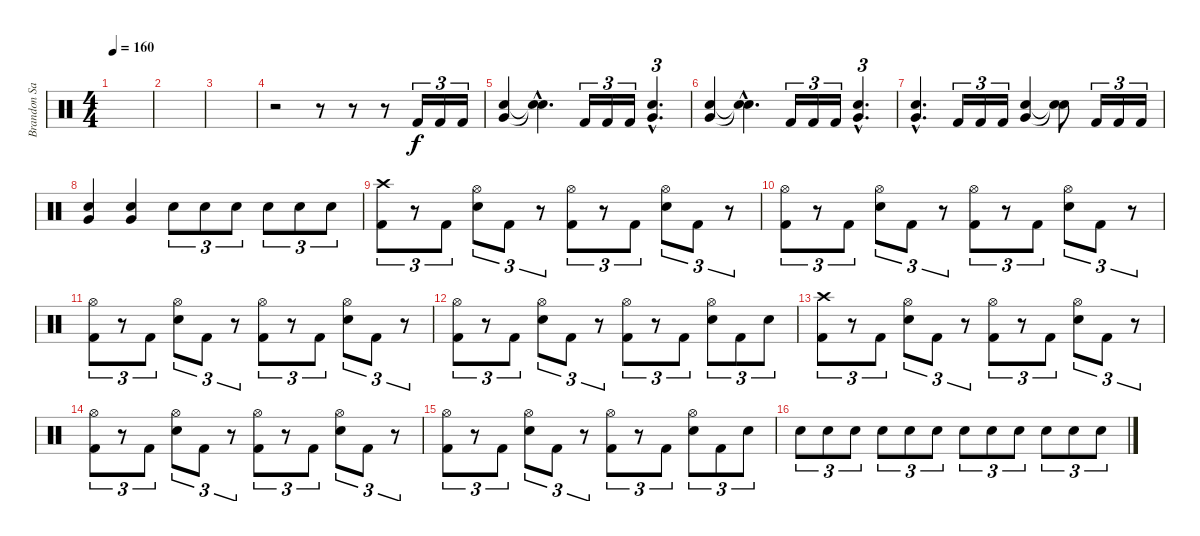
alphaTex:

\track ("Brandon Saller" "Brandon Sa") {instrument percussion}
\staff {score}
\articulation defaults
\ts (4 4)
\tempo 160
\clef neutral
\ks c
|
|
|
r.2 r.8 r.8 r.8 "Kick (hit) 2".16{tu (3 2)} "Kick (hit) 2".16{tu (3 2)} "Kick (hit) 2".16{tu (3 2)} |
("Very Low Tom (hit)" "Electric Snare (hit)").4 ("Snare (hit)"{hac t} "Snare (hit)"{hac t}).4{d} "Kick (hit) 2".16{tu (3 2)} "Kick (hit) 2".16{tu (3 2)} "Kick (hit) 2".16{tu (3 2)} ("Very Low Tom (hit)"{hac} "Electric Snare (hit)"{hac}).4{d tu (3 2)} |
("Very Low Tom (hit)" "Electric Snare (hit)").4 ("Snare (hit)"{hac t} "Snare (hit)"{hac t}).4{d} "Kick (hit) 2".16{tu (3 2)} "Kick (hit) 2".16{tu (3 2)} "Kick (hit) 2".16{tu (3 2)} ("Very Low Tom (hit)"{hac} "Electric Snare (hit)"{hac}).4{d tu (3 2)} |
("Very Low Tom (hit)"{hac} "Electric Snare (hit)"{hac}).4{d} "Kick (hit) 2".16{tu (3 2)} "Kick (hit) 2".16{tu (3 2)} "Kick (hit) 2".16{tu (3 2)} ("Very Low Tom (hit)" "Electric Snare (hit)").4 ("Snare (hit)"{t} "Snare (hit)"{t}).8 "Kick (hit) 2".16{tu (3 2)} "Kick (hit) 2".16{tu (3 2)} "Kick (hit) 2".16{tu (3 2)} |
("Very Low Tom (hit)" "Electric Snare (hit)").4 ("Very Low Tom (hit)" "Electric Snare (hit)").4 "Electric Snare (hit)".8{tu (3 2)} "Electric Snare (hit)".8{tu (3 2)} "Electric Snare (hit)".8{tu (3 2)} "Electric Snare (hit)".8{tu (3 2)} "Electric Snare (hit)".8{tu (3 2)} "Electric Snare (hit)".8{tu (3 2)} |
("Crash high (hit)" "Kick (hit) 2").8{tu (3 2)} r.8{tu (3 2)} "Kick (hit) 2".8{tu (3 2)} ("Hi-Hat (open)" "Electric Snare (hit)").8{tu (3 2)} "Kick (hit) 2".8{tu (3 2)} r.8{tu (3 2)} ("Hi-Hat (open)" "Kick (hit) 2").8{tu (3 2)} r.8{tu (3 2)} "Kick (hit) 2".8{tu (3 2)} ("Hi-Hat (open)" "Electric Snare (hit)").8{tu (3 2)} "Kick (hit) 2".8{tu (3 2)} r.8{tu (3 2)} |
("Hi-Hat (open)" "Kick (hit) 2").8{tu (3 2)} r.8{tu (3 2)} "Kick (hit) 2".8{tu (3 2)} ("Hi-Hat (open)" "Electric Snare (hit)").8{tu (3 2)} "Kick (hit) 2".8{tu (3 2)} r.8{tu (3 2)} ("Hi-Hat (open)" "Kick (hit) 2").8{tu (3 2)} r.8{tu (3 2)} "Kick (hit) 2".8{tu (3 2)} ("Hi-Hat (open)" "Electric Snare (hit)").8{tu (3 2)} "Kick (hit) 2".8{tu (3 2)} r.8{tu (3 2)} |
("Hi-Hat (open)" "Kick (hit) 2").8{tu (3 2)} r.8{tu (3 2)} "Kick (hit) 2".8{tu (3 2)} ("Hi-Hat (open)" "Electric Snare (hit)").8{tu (3 2)} "Kick (hit) 2".8{tu (3 2)} r.8{tu (3 2)} ("Hi-Hat (open)" "Kick (hit) 2").8{tu (3 2)} r.8{tu (3 2)} "Kick (hit) 2".8{tu (3 2)} ("Hi-Hat (open)" "Electric Snare (hit)").8{tu (3 2)} "Kick (hit) 2".8{tu (3 2)} r.8{tu (3 2)} |
("Hi-Hat (open)" "Kick (hit) 2").8{tu (3 2)} r.8{tu (3 2)} "Kick (hit) 2".8{tu (3 2)} ("Hi-Hat (open)" "Electric Snare (hit)").8{tu (3 2)} "Kick (hit) 2".8{tu (3 2)} r.8{tu (3 2)} ("Hi-Hat (open)" "Kick (hit) 2").8{tu (3 2)} r.8{tu (3 2)} "Kick (hit) 2".8{tu (3 2)} ("Hi-Hat (open)" "Electric Snare (hit)").8{tu (3 2)} "Kick (hit) 2".8{tu (3 2)} "Electric Snare (hit)".8{tu (3 2)} |
("Crash high (hit)" "Kick (hit) 2").8{tu (3 2)} r.8{tu (3 2)} "Kick (hit) 2".8{tu (3 2)} ("Hi-Hat (open)" "Electric Snare (hit)").8{tu (3 2)} "Kick (hit) 2".8{tu (3 2)} r.8{tu (3 2)} ("Hi-Hat (open)" "Kick (hit) 2").8{tu (3 2)} r.8{tu (3 2)} "Kick (hit) 2".8{tu (3 2)} ("Hi-Hat (open)" "Electric Snare (hit)").8{tu (3 2)} "Kick (hit) 2".8{tu (3 2)} r.8{tu (3 2)} |
("Hi-Hat (open)" "Kick (hit) 2").8{tu (3 2)} r.8{tu (3 2)} "Kick (hit) 2".8{tu (3 2)} ("Hi-Hat (open)" "Electric Snare (hit)").8{tu (3 2)} "Kick (hit) 2".8{tu (3 2)} r.8{tu (3 2)} ("Hi-Hat (open)" "Kick (hit) 2").8{tu (3 2)} r.8{tu (3 2)} "Kick (hit) 2".8{tu (3 2)} ("Hi-Hat (open)" "Electric Snare (hit)").8{tu (3 2)} "Kick (hit) 2".8{tu (3 2)} r.8{tu (3 2)} |
("Hi-Hat (open)" "Kick (hit) 2").8{tu (3 2)} r.8{tu (3 2)} "Kick (hit) 2".8{tu (3 2)} ("Hi-Hat (open)" "Electric Snare (hit)").8{tu (3 2)} "Kick (hit) 2".8{tu (3 2)} r.8{tu (3 2)} ("Hi-Hat (open)" "Kick (hit) 2").8{tu (3 2)} r.8{tu (3 2)} "Kick (hit) 2".8{tu (3 2)} ("Hi-Hat (open)" "Electric Snare (hit)").8{tu (3 2)} "Kick (hit) 2".8{tu (3 2)} "Electric Snare (hit)".8{tu (3 2)} |
"Electric Snare (hit)".8{tu (3 2)} "Electric Snare (hit)".8{tu (3 2)} "Electric Snare (hit)".8{tu (3 2)} "Electric Snare (hit)".8{tu (3 2)} "Electric Snare (hit)".8{tu (3 2)} "Electric Snare (hit)".8{tu (3 2)} "Electric Snare (hit)".8{tu (3 2)} "Electric Snare (hit)".8{tu (3 2)} "Electric Snare (hit)".8{tu (3 2)} "Electric Snare (hit)".8{tu (3 2)} "Electric Snare (hit)".8{tu (3 2)} "Electric Snare (hit)".8{tu (3 2)}
